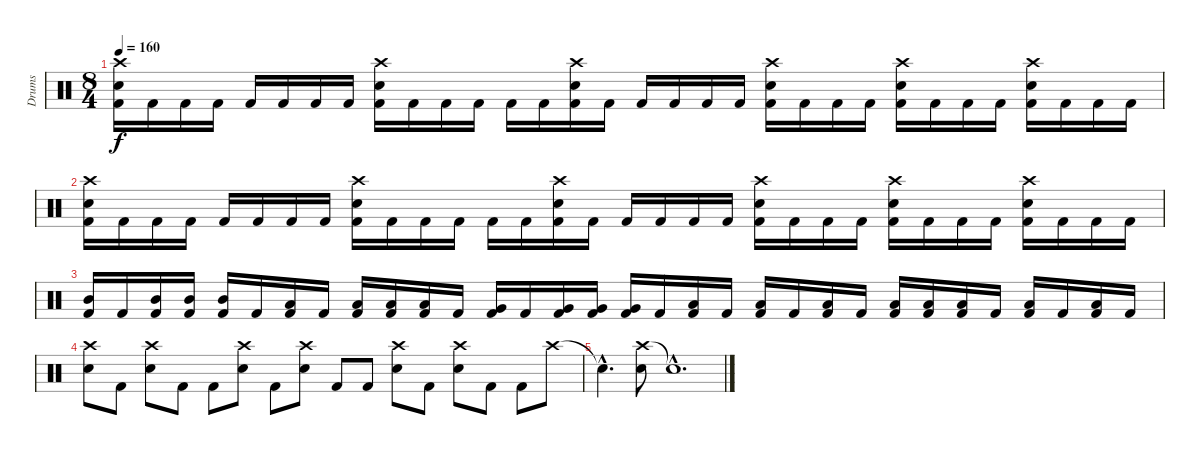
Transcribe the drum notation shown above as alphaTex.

\track ("Drums" "Drums") {instrument percussion}
\staff {score}
\articulation defaults
\ts (8 4)
\tempo 160
\clef neutral
\ks c
("Crash high (hit)" "Snare (hit) 2" "Kick (hit) 2").16{dy f} "Kick (hit) 2".16 "Kick (hit) 2".16 "Kick (hit) 2".16 "Kick (hit) 2".16 "Kick (hit) 2".16 "Kick (hit) 2".16 "Kick (hit) 2".16 ("Crash high (hit)" "Snare (hit) 2" "Kick (hit) 2").16 "Kick (hit) 2".16 "Kick (hit) 2".16 "Kick (hit) 2".16 "Kick (hit) 2".16 "Kick (hit) 2".16 ("Crash high (hit)" "Snare (hit) 2" "Kick (hit) 2").16 "Kick (hit) 2".16 "Kick (hit) 2".16 "Kick (hit) 2".16 "Kick (hit) 2".16 "Kick (hit) 2".16 ("Crash high (hit)" "Snare (hit) 2" "Kick (hit) 2").16 "Kick (hit) 2".16 "Kick (hit) 2".16 "Kick (hit) 2".16 ("Crash high (hit)" "Snare (hit) 2" "Kick (hit) 2").16 "Kick (hit) 2".16 "Kick (hit) 2".16 "Kick (hit) 2".16 ("Crash high (hit)" "Snare (hit) 2" "Kick (hit) 2").16 "Kick (hit) 2".16 "Kick (hit) 2".16 "Kick (hit) 2".16 |
("Crash high (hit)" "Snare (hit) 2" "Kick (hit) 2").16 "Kick (hit) 2".16 "Kick (hit) 2".16 "Kick (hit) 2".16 "Kick (hit) 2".16 "Kick (hit) 2".16 "Kick (hit) 2".16 "Kick (hit) 2".16 ("Crash high (hit)" "Snare (hit) 2" "Kick (hit) 2").16 "Kick (hit) 2".16 "Kick (hit) 2".16 "Kick (hit) 2".16 "Kick (hit) 2".16 "Kick (hit) 2".16 ("Crash high (hit)" "Snare (hit) 2" "Kick (hit) 2").16 "Kick (hit) 2".16 "Kick (hit) 2".16 "Kick (hit) 2".16 "Kick (hit) 2".16 "Kick (hit) 2".16 ("Crash high (hit)" "Snare (hit) 2" "Kick (hit) 2").16 "Kick (hit) 2".16 "Kick (hit) 2".16 "Kick (hit) 2".16 ("Crash high (hit)" "Snare (hit) 2" "Kick (hit) 2").16 "Kick (hit) 2".16 "Kick (hit) 2".16 "Kick (hit) 2".16 ("Crash high (hit)" "Snare (hit) 2" "Kick (hit) 2").16 "Kick (hit) 2".16 "Kick (hit) 2".16 "Kick (hit) 2".16 |
("Mid Tom (hit)" "Kick (hit) 2").16 "Kick (hit) 2".16 ("Mid Tom (hit)" "Kick (hit) 2").16 ("Mid Tom (hit)" "Kick (hit) 2").16 ("Mid Tom (hit)" "Kick (hit) 2").16 "Kick (hit) 2".16 ("Low Tom (hit)" "Kick (hit) 2").16 "Kick (hit) 2".16 ("Low Tom (hit)" "Kick (hit) 2").16 ("Low Tom (hit)" "Kick (hit) 2").16 ("Low Tom (hit)" "Kick (hit) 2").16 "Kick (hit) 2".16 ("Very Low Tom (hit)" "Kick (hit) 2").16 "Kick (hit) 2".16 ("Very Low Tom (hit)" "Kick (hit) 2").16 ("Very Low Tom (hit)" "Kick (hit) 2").16 ("Very Low Tom (hit)" "Kick (hit) 2").16 "Kick (hit) 2".16 ("Low Floor Tom (hit)" "Kick (hit) 2").16 "Kick (hit) 2".16 ("Low Floor Tom (hit)" "Kick (hit) 2").16 "Kick (hit) 2".16 ("Low Floor Tom (hit)" "Kick (hit) 2").16 "Kick (hit) 2".16 ("Low Floor Tom (hit)" "Kick (hit) 2").16 ("Low Floor Tom (hit)" "Kick (hit) 2").16 ("Low Floor Tom (hit)" "Kick (hit) 2").16 "Kick (hit) 2".16 ("Low Floor Tom (hit)" "Kick (hit) 2").16 "Kick (hit) 2".16 ("Low Floor Tom (hit)" "Kick (hit) 2").16 "Kick (hit) 2".16 |
("Crash high (hit)" "Snare (hit) 2").8 "Kick (hit) 2".8 ("Crash high (hit)" "Snare (hit) 2").8 "Kick (hit) 2".8 "Kick (hit) 2".8 ("Crash high (hit)" "Snare (hit) 2").8 "Kick (hit) 2".8 ("Crash high (hit)" "Snare (hit) 2").8 "Kick (hit) 2".8 "Kick (hit) 2".8 ("Crash high (hit)" "Snare (hit) 2").8 "Kick (hit) 2".8 ("Crash high (hit)" "Snare (hit) 2").8 "Kick (hit) 2".8 "Kick (hit) 2".8 "Crash high (hit)".8 |
"Snare (hit)"{hac t}.4{d} ("Crash high (hit)" "Snare (hit) 2").8 "Snare (hit)"{hac t}.1{d}
